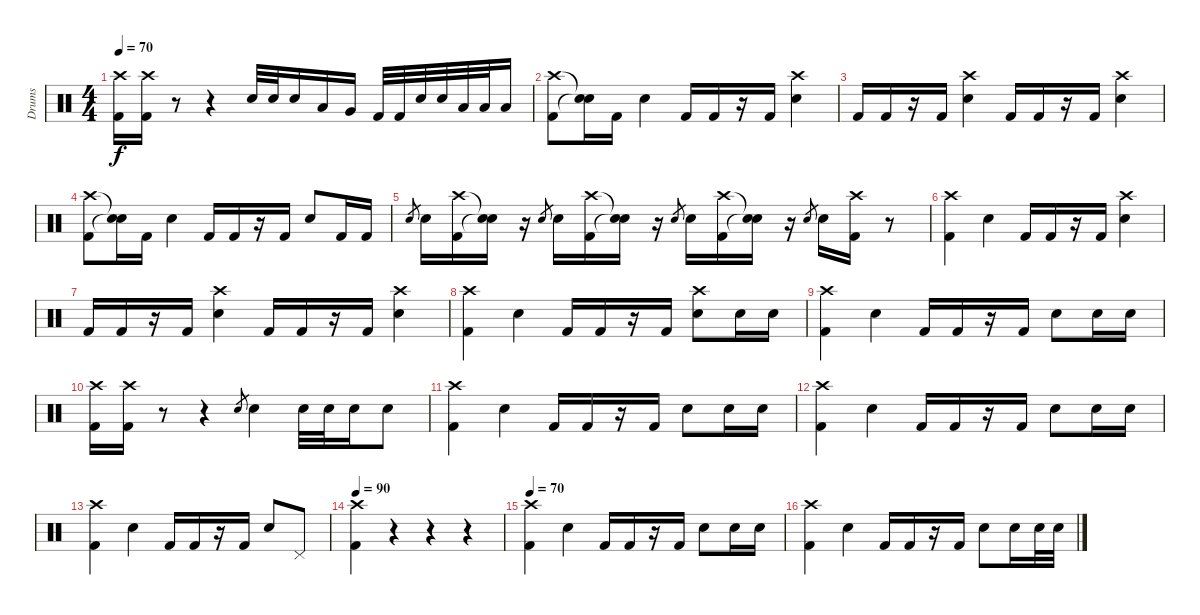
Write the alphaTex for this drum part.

\track ("Drums" "Drums") {instrument percussion}
\staff {score}
\articulation defaults
\ts (4 4)
\tempo 70
\clef neutral
\ks c
("Crash high (hit)" "Kick (hit) 2").16{dy f} ("Crash high (hit)" "Kick (hit) 2").16 r.8 r.4 "Electric Snare (hit)".32 "Electric Snare (hit)".32 "Electric Snare (hit)".16 "Low Tom (hit)".16 "Very Low Tom (hit)".16 "Kick (hit) 2".32 "Kick (hit) 2".32 "Electric Snare (hit)".32 "Electric Snare (hit)".32 "Low Tom (hit)".32 "Low Tom (hit)".32 "Low Tom (hit)".16 |
("Crash high (hit)" "Kick (hit) 2").8 ("Snare (hit)"{t} "Snare (hit)"{t}).16 "Kick (hit) 2".16 "Electric Snare (hit)".4 "Kick (hit) 2".16 "Kick (hit) 2".16 r.16 "Kick (hit) 2".16 ("Crash high (hit)" "Electric Snare (hit)").4 |
"Kick (hit) 2".16 "Kick (hit) 2".16 r.16 "Kick (hit) 2".16 ("Crash high (hit)" "Electric Snare (hit)").4 "Kick (hit) 2".16 "Kick (hit) 2".16 r.16 "Kick (hit) 2".16 ("Crash high (hit)" "Electric Snare (hit)").4 |
("Crash high (hit)" "Kick (hit) 2").8 ("Snare (hit)"{t} "Snare (hit)"{t}).16 "Kick (hit) 2".16 "Electric Snare (hit)".4 "Kick (hit) 2".16 "Kick (hit) 2".16 r.16 "Kick (hit) 2".16 "Electric Snare (hit)".8 "Kick (hit) 2".16 "Kick (hit) 2".16 |
"Electric Snare (hit)".8{gr} "Electric Snare (hit)".16 ("Crash high (hit)" "Kick (hit) 2").16 ("Snare (hit)"{t} "Snare (hit)"{t}).16 r.16 "Electric Snare (hit)".8{gr} "Electric Snare (hit)".16 ("Crash high (hit)" "Kick (hit) 2").16 ("Snare (hit)"{t} "Snare (hit)"{t}).16 r.16 "Electric Snare (hit)".8{gr} "Electric Snare (hit)".16 ("Crash high (hit)" "Kick (hit) 2").16 ("Snare (hit)"{t} "Snare (hit)"{t}).16 r.16 "Electric Snare (hit)".8{gr} "Electric Snare (hit)".16 ("Crash high (hit)" "Kick (hit) 2").16 r.8 |
("Crash high (hit)" "Kick (hit) 2").4 "Electric Snare (hit)".4 "Kick (hit) 2".16 "Kick (hit) 2".16 r.16 "Kick (hit) 2".16 ("Crash high (hit)" "Electric Snare (hit)").4 |
"Kick (hit) 2".16 "Kick (hit) 2".16 r.16 "Kick (hit) 2".16 ("Crash high (hit)" "Electric Snare (hit)").4 "Kick (hit) 2".16 "Kick (hit) 2".16 r.16 "Kick (hit) 2".16 ("Crash high (hit)" "Electric Snare (hit)").4 |
("Crash high (hit)" "Kick (hit) 2").4 "Electric Snare (hit)".4 "Kick (hit) 2".16 "Kick (hit) 2".16 r.16 "Kick (hit) 2".16 ("Crash high (hit)" "Electric Snare (hit)").8 "Electric Snare (hit)".16 "Electric Snare (hit)".16 |
("Crash high (hit)" "Kick (hit) 2").4 "Electric Snare (hit)".4 "Kick (hit) 2".16 "Kick (hit) 2".16 r.16 "Kick (hit) 2".16 "Electric Snare (hit)".8 "Electric Snare (hit)".16 "Electric Snare (hit)".16 |
("Crash high (hit)" "Kick (hit) 2").16 ("Crash high (hit)" "Kick (hit) 2").16 r.8 r.4 "Electric Snare (hit)".8{gr} "Electric Snare (hit)".4 "Electric Snare (hit)".32 "Electric Snare (hit)".32 "Electric Snare (hit)".16 "Electric Snare (hit)".8 |
("Crash high (hit)" "Kick (hit) 2").4 "Electric Snare (hit)".4 "Kick (hit) 2".16 "Kick (hit) 2".16 r.16 "Kick (hit) 2".16 "Electric Snare (hit)".8 "Electric Snare (hit)".16 "Electric Snare (hit)".16 |
("Crash high (hit)" "Kick (hit) 2").4 "Electric Snare (hit)".4 "Kick (hit) 2".16 "Kick (hit) 2".16 r.16 "Kick (hit) 2".16 "Electric Snare (hit)".8 "Electric Snare (hit)".16 "Electric Snare (hit)".16 |
("Crash high (hit)" "Kick (hit) 2").4 "Electric Snare (hit)".4 "Kick (hit) 2".16 "Kick (hit) 2".16 r.16 "Kick (hit) 2".16 "Electric Snare (hit)".8 "Pedal Hi-Hat (hit)".8 |
\tempo 90
("Crash high (hit)" "Kick (hit) 2").4 r.4 r.4 r.4 |
\tempo 70
("Crash high (hit)" "Kick (hit) 2").4 "Electric Snare (hit)".4 "Kick (hit) 2".16 "Kick (hit) 2".16 r.16 "Kick (hit) 2".16 "Electric Snare (hit)".8 "Electric Snare (hit)".16 "Electric Snare (hit)".16 |
("Crash high (hit)" "Kick (hit) 2").4 "Electric Snare (hit)".4 "Kick (hit) 2".16 "Kick (hit) 2".16 r.16 "Kick (hit) 2".16 "Electric Snare (hit)".8 "Electric Snare (hit)".16 "Electric Snare (hit)".32 "Electric Snare (hit)".32
